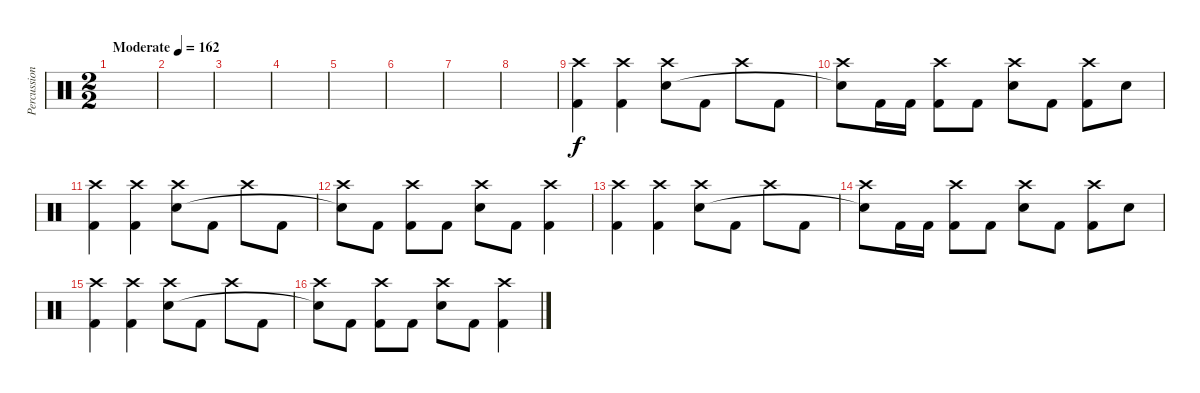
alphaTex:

\track ("Percussion" "Percussion") {instrument percussion}
\staff {score}
\articulation defaults
\ts (2 2)
\tempo (162 "Moderate")
\clef neutral
\ks c
|
|
|
|
|
|
|
|
("Crash high (hit)" "Kick (hit) 2").4 ("Crash high (hit)" "Kick (hit) 2").4 ("Crash high (hit)" "Snare (hit) 2").8 "Kick (hit) 2".8 "Crash high (hit)".8 "Kick (hit) 2".8 |
("Crash high (hit)" "Snare (hit)"{t}).8 "Kick (hit) 2".16 "Kick (hit) 2".16 ("Crash high (hit)" "Kick (hit) 2").8 "Kick (hit) 2".8 ("Crash high (hit)" "Snare (hit) 2").8 "Kick (hit) 2".8 ("Crash high (hit)" "Kick (hit) 2").8 "Snare (hit) 2".8 |
("Crash high (hit)" "Kick (hit) 2").4 ("Crash high (hit)" "Kick (hit) 2").4 ("Crash high (hit)" "Snare (hit) 2").8 "Kick (hit) 2".8 "Crash high (hit)".8 "Kick (hit) 2".8 |
("Crash high (hit)" "Snare (hit)"{t}).8 "Kick (hit) 2".8 ("Crash high (hit)" "Kick (hit) 2").8 "Kick (hit) 2".8 ("Crash high (hit)" "Snare (hit) 2").8 "Kick (hit) 2".8 ("Crash high (hit)" "Kick (hit) 2").4 |
("Crash high (hit)" "Kick (hit) 2").4 ("Crash high (hit)" "Kick (hit) 2").4 ("Crash high (hit)" "Snare (hit) 2").8 "Kick (hit) 2".8 "Crash high (hit)".8 "Kick (hit) 2".8 |
("Crash high (hit)" "Snare (hit)"{t}).8 "Kick (hit) 2".16 "Kick (hit) 2".16 ("Crash high (hit)" "Kick (hit) 2").8 "Kick (hit) 2".8 ("Crash high (hit)" "Snare (hit) 2").8 "Kick (hit) 2".8 ("Crash high (hit)" "Kick (hit) 2").8 "Snare (hit) 2".8 |
("Crash high (hit)" "Kick (hit) 2").4 ("Crash high (hit)" "Kick (hit) 2").4 ("Crash high (hit)" "Snare (hit) 2").8 "Kick (hit) 2".8 "Crash high (hit)".8 "Kick (hit) 2".8 |
("Crash high (hit)" "Snare (hit)"{t}).8 "Kick (hit) 2".8 ("Crash high (hit)" "Kick (hit) 2").8 "Kick (hit) 2".8 ("Crash high (hit)" "Snare (hit) 2").8 "Kick (hit) 2".8 ("Crash high (hit)" "Kick (hit) 2").4
